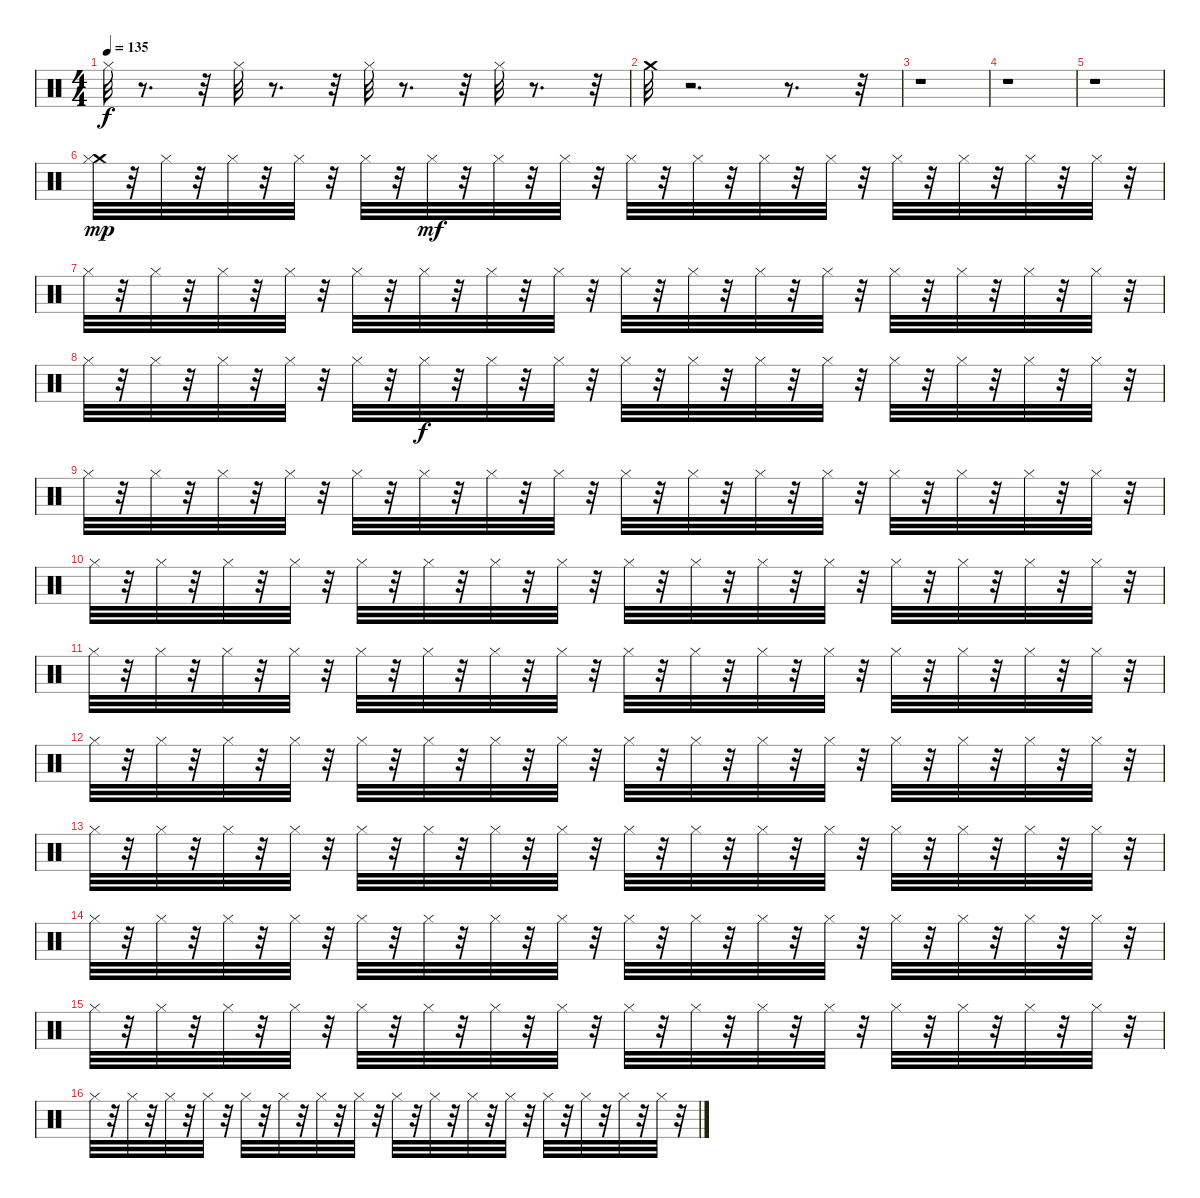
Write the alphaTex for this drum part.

\track "" {instrument percussion}
\staff {score}
\articulation defaults
\ts (4 4)
\tempo 135
\clef neutral
\ks c "Hi-Hat (closed)".32{dy f}
r.8{d} r.32 "Hi-Hat (closed)".32 r.8{d} r.32 "Hi-Hat (closed)".32 r.8{d} r.32 "Hi-Hat (closed)".32 r.8{d} r.32 |
"Crash medium (hit)".32 r.2{d} r.8{d} r.32 |
r.1 |
r.1 |
r.1 |
("Crash medium (hit)" "Hi-Hat (closed)").32{dy mp} r.32 "Hi-Hat (closed)".32 r.32 "Hi-Hat (closed)".32 r.32 "Hi-Hat (closed)".32 r.32 "Hi-Hat (closed)".32 r.32 "Hi-Hat (closed)".32{dy mf} r.32 "Hi-Hat (closed)".32 r.32 "Hi-Hat (closed)".32 r.32 "Hi-Hat (closed)".32 r.32 "Hi-Hat (closed)".32 r.32 "Hi-Hat (closed)".32 r.32 "Hi-Hat (closed)".32 r.32 "Hi-Hat (closed)".32 r.32 "Hi-Hat (closed)".32 r.32 "Hi-Hat (closed)".32 r.32 "Hi-Hat (closed)".32 r.32 |
"Hi-Hat (closed)".32 r.32 "Hi-Hat (closed)".32 r.32 "Hi-Hat (closed)".32 r.32 "Hi-Hat (closed)".32 r.32 "Hi-Hat (closed)".32 r.32 "Hi-Hat (closed)".32 r.32 "Hi-Hat (closed)".32 r.32 "Hi-Hat (closed)".32 r.32 "Hi-Hat (closed)".32 r.32 "Hi-Hat (closed)".32 r.32 "Hi-Hat (closed)".32 r.32 "Hi-Hat (closed)".32 r.32 "Hi-Hat (closed)".32 r.32 "Hi-Hat (closed)".32 r.32 "Hi-Hat (closed)".32 r.32 "Hi-Hat (closed)".32 r.32 |
"Hi-Hat (closed)".32 r.32 "Hi-Hat (closed)".32 r.32 "Hi-Hat (closed)".32 r.32 "Hi-Hat (closed)".32 r.32 "Hi-Hat (closed)".32 r.32 "Hi-Hat (closed)".32{dy f} r.32 "Hi-Hat (closed)".32 r.32 "Hi-Hat (closed)".32 r.32 "Hi-Hat (closed)".32 r.32 "Hi-Hat (closed)".32 r.32 "Hi-Hat (closed)".32 r.32 "Hi-Hat (closed)".32 r.32 "Hi-Hat (closed)".32 r.32 "Hi-Hat (closed)".32 r.32 "Hi-Hat (closed)".32 r.32 "Hi-Hat (closed)".32 r.32 |
"Hi-Hat (closed)".32 r.32 "Hi-Hat (closed)".32 r.32 "Hi-Hat (closed)".32 r.32 "Hi-Hat (closed)".32 r.32 "Hi-Hat (closed)".32 r.32 "Hi-Hat (closed)".32 r.32 "Hi-Hat (closed)".32 r.32 "Hi-Hat (closed)".32 r.32 "Hi-Hat (closed)".32 r.32 "Hi-Hat (closed)".32 r.32 "Hi-Hat (closed)".32 r.32 "Hi-Hat (closed)".32 r.32 "Hi-Hat (closed)".32 r.32 "Hi-Hat (closed)".32 r.32 "Hi-Hat (closed)".32 r.32 "Hi-Hat (closed)".32 r.32 |
"Hi-Hat (closed)".32 r.32 "Hi-Hat (closed)".32 r.32 "Hi-Hat (closed)".32 r.32 "Hi-Hat (closed)".32 r.32 "Hi-Hat (closed)".32 r.32 "Hi-Hat (closed)".32 r.32 "Hi-Hat (closed)".32 r.32 "Hi-Hat (closed)".32 r.32 "Hi-Hat (closed)".32 r.32 "Hi-Hat (closed)".32 r.32 "Hi-Hat (closed)".32 r.32 "Hi-Hat (closed)".32 r.32 "Hi-Hat (closed)".32 r.32 "Hi-Hat (closed)".32 r.32 "Hi-Hat (closed)".32 r.32 "Hi-Hat (closed)".32 r.32 |
"Hi-Hat (closed)".32 r.32 "Hi-Hat (closed)".32 r.32 "Hi-Hat (closed)".32 r.32 "Hi-Hat (closed)".32 r.32 "Hi-Hat (closed)".32 r.32 "Hi-Hat (closed)".32 r.32 "Hi-Hat (closed)".32 r.32 "Hi-Hat (closed)".32 r.32 "Hi-Hat (closed)".32 r.32 "Hi-Hat (closed)".32 r.32 "Hi-Hat (closed)".32 r.32 "Hi-Hat (closed)".32 r.32 "Hi-Hat (closed)".32 r.32 "Hi-Hat (closed)".32 r.32 "Hi-Hat (closed)".32 r.32 "Hi-Hat (closed)".32 r.32 |
"Hi-Hat (closed)".32 r.32 "Hi-Hat (closed)".32 r.32 "Hi-Hat (closed)".32 r.32 "Hi-Hat (closed)".32 r.32 "Hi-Hat (closed)".32 r.32 "Hi-Hat (closed)".32 r.32 "Hi-Hat (closed)".32 r.32 "Hi-Hat (closed)".32 r.32 "Hi-Hat (closed)".32 r.32 "Hi-Hat (closed)".32 r.32 "Hi-Hat (closed)".32 r.32 "Hi-Hat (closed)".32 r.32 "Hi-Hat (closed)".32 r.32 "Hi-Hat (closed)".32 r.32 "Hi-Hat (closed)".32 r.32 "Hi-Hat (closed)".32 r.32 |
"Hi-Hat (closed)".32 r.32 "Hi-Hat (closed)".32 r.32 "Hi-Hat (closed)".32 r.32 "Hi-Hat (closed)".32 r.32 "Hi-Hat (closed)".32 r.32 "Hi-Hat (closed)".32 r.32 "Hi-Hat (closed)".32 r.32 "Hi-Hat (closed)".32 r.32 "Hi-Hat (closed)".32 r.32 "Hi-Hat (closed)".32 r.32 "Hi-Hat (closed)".32 r.32 "Hi-Hat (closed)".32 r.32 "Hi-Hat (closed)".32 r.32 "Hi-Hat (closed)".32 r.32 "Hi-Hat (closed)".32 r.32 "Hi-Hat (closed)".32 r.32 |
"Hi-Hat (closed)".32 r.32 "Hi-Hat (closed)".32 r.32 "Hi-Hat (closed)".32 r.32 "Hi-Hat (closed)".32 r.32 "Hi-Hat (closed)".32 r.32 "Hi-Hat (closed)".32 r.32 "Hi-Hat (closed)".32 r.32 "Hi-Hat (closed)".32 r.32 "Hi-Hat (closed)".32 r.32 "Hi-Hat (closed)".32 r.32 "Hi-Hat (closed)".32 r.32 "Hi-Hat (closed)".32 r.32 "Hi-Hat (closed)".32 r.32 "Hi-Hat (closed)".32 r.32 "Hi-Hat (closed)".32 r.32 "Hi-Hat (closed)".32 r.32 |
"Hi-Hat (closed)".32 r.32 "Hi-Hat (closed)".32 r.32 "Hi-Hat (closed)".32 r.32 "Hi-Hat (closed)".32 r.32 "Hi-Hat (closed)".32 r.32 "Hi-Hat (closed)".32 r.32 "Hi-Hat (closed)".32 r.32 "Hi-Hat (closed)".32 r.32 "Hi-Hat (closed)".32 r.32 "Hi-Hat (closed)".32 r.32 "Hi-Hat (closed)".32 r.32 "Hi-Hat (closed)".32 r.32 "Hi-Hat (closed)".32 r.32 "Hi-Hat (closed)".32 r.32 "Hi-Hat (closed)".32 r.32 "Hi-Hat (closed)".32 r.32 |
"Hi-Hat (closed)".32 r.32 "Hi-Hat (closed)".32 r.32 "Hi-Hat (closed)".32 r.32 "Hi-Hat (closed)".32 r.32 "Hi-Hat (closed)".32 r.32 "Hi-Hat (closed)".32 r.32 "Hi-Hat (closed)".32 r.32 "Hi-Hat (closed)".32 r.32 "Hi-Hat (closed)".32 r.32 "Hi-Hat (closed)".32 r.32 "Hi-Hat (closed)".32 r.32 "Hi-Hat (closed)".32 r.32 "Hi-Hat (closed)".32 r.32 "Hi-Hat (closed)".32 r.32 "Hi-Hat (closed)".32 r.32 "Hi-Hat (closed)".32 r.32
